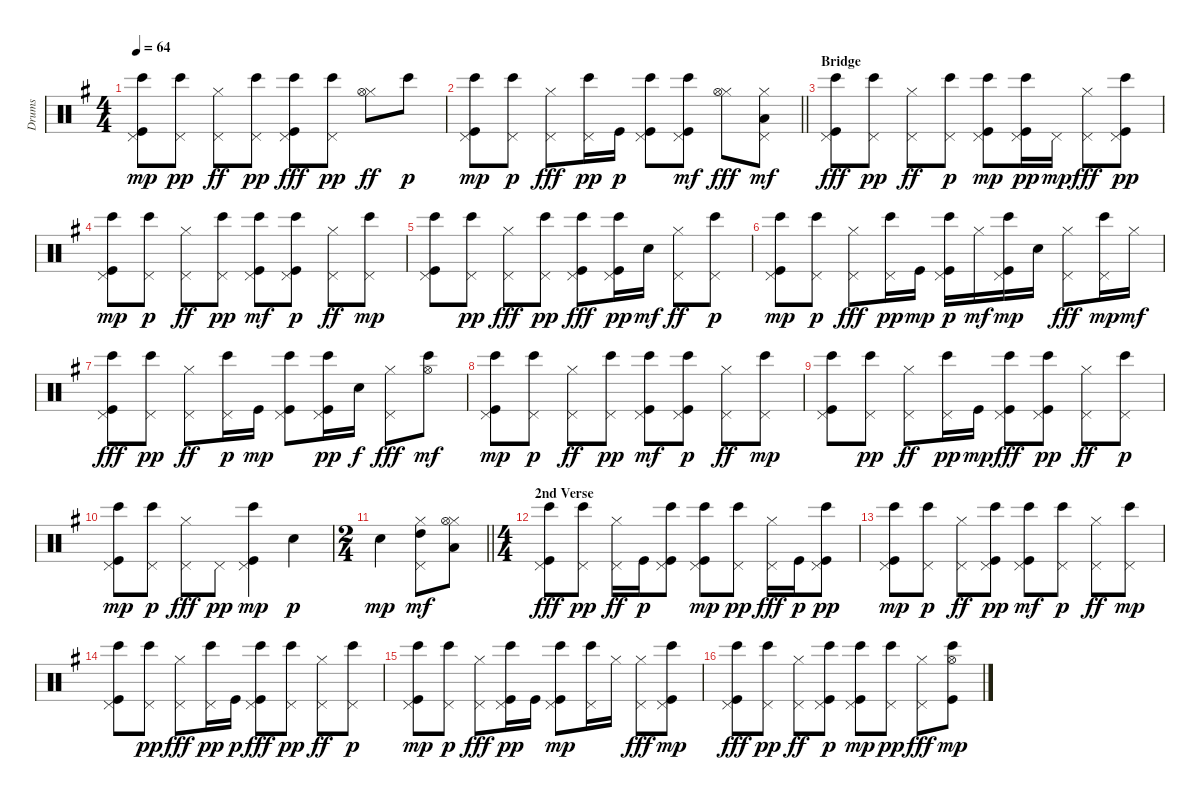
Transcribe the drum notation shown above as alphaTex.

\track ("Drums" "Drums") {instrument percussion}
\staff {score}
\articulation defaults
\ts (4 4)
\tempo 64
\clef neutral
\ks g
("Bongo High (hit)" "Kick (hit)" "Pedal Hi-Hat (hit)").8{dy mp} ("Bongo High (hit)" "Pedal Hi-Hat (hit)").8{dy pp} ("Hi-Hat (closed)" "Pedal Hi-Hat (hit)").8{dy ff} ("Bongo High (hit)" "Pedal Hi-Hat (hit)").8{dy pp} ("Bongo High (hit)" "Kick (hit)" "Pedal Hi-Hat (hit)").8{dy fff} ("Bongo High (hit)" "Pedal Hi-Hat (hit)").8{dy pp} ("Hi-Hat (closed)" "Hi-Hat (open)").8{dy ff} "Bongo High (hit)".8{dy p} |
\barLineRight lightlight
("Bongo High (hit)" "Kick (hit)" "Pedal Hi-Hat (hit)").8{dy mp} ("Bongo High (hit)" "Pedal Hi-Hat (hit)").8{dy p} ("Hi-Hat (closed)" "Pedal Hi-Hat (hit)").8{dy fff} ("Bongo High (hit)" "Pedal Hi-Hat (hit)").16{dy pp} "Kick (hit)".16{dy p} ("Bongo High (hit)" "Kick (hit)" "Pedal Hi-Hat (hit)").8 ("Bongo High (hit)" "Kick (hit)" "Pedal Hi-Hat (hit)").8{dy mf} ("Hi-Hat (closed)" "Hi-Hat (open)").8{dy fff} ("Hi-Hat (closed)" "Pedal Hi-Hat (hit)" "Low Tom (hit)").8{dy mf} |
\section ("" "Bridge")
("Bongo High (hit)" "Kick (hit)" "Pedal Hi-Hat (hit)").8{dy fff} ("Bongo High (hit)" "Pedal Hi-Hat (hit)").8{dy pp} ("Hi-Hat (closed)" "Pedal Hi-Hat (hit)").8{dy ff} ("Bongo High (hit)" "Pedal Hi-Hat (hit)").8{dy p} ("Bongo High (hit)" "Kick (hit)" "Pedal Hi-Hat (hit)").8{dy mp} ("Bongo High (hit)" "Kick (hit)" "Pedal Hi-Hat (hit)").16{dy pp} "Pedal Hi-Hat (hit)".16{dy mp} ("Hi-Hat (closed)" "Pedal Hi-Hat (hit)").8{dy fff} ("Bongo High (hit)" "Kick (hit)" "Pedal Hi-Hat (hit)").8{dy pp} |
("Bongo High (hit)" "Kick (hit)" "Pedal Hi-Hat (hit)").8{dy mp} ("Bongo High (hit)" "Pedal Hi-Hat (hit)").8{dy p} ("Hi-Hat (closed)" "Pedal Hi-Hat (hit)").8{dy ff} ("Bongo High (hit)" "Pedal Hi-Hat (hit)").8{dy pp} ("Bongo High (hit)" "Kick (hit)" "Pedal Hi-Hat (hit)").8{dy mf} ("Bongo High (hit)" "Kick (hit)" "Pedal Hi-Hat (hit)").8{dy p} ("Hi-Hat (closed)" "Pedal Hi-Hat (hit)").8{dy ff} ("Bongo High (hit)" "Pedal Hi-Hat (hit)").8{dy mp} |
("Bongo High (hit)" "Kick (hit)" "Pedal Hi-Hat (hit)").8 ("Bongo High (hit)" "Pedal Hi-Hat (hit)").8{dy pp} ("Hi-Hat (closed)" "Pedal Hi-Hat (hit)").8{dy fff} ("Bongo High (hit)" "Pedal Hi-Hat (hit)").8{dy pp} ("Bongo High (hit)" "Kick (hit)" "Pedal Hi-Hat (hit)").8{dy fff} ("Bongo High (hit)" "Kick (hit)" "Pedal Hi-Hat (hit)").16{dy pp} "Snare (hit)".16{dy mf} ("Hi-Hat (closed)" "Pedal Hi-Hat (hit)").8{dy ff} ("Bongo High (hit)" "Pedal Hi-Hat (hit)").8{dy p} |
("Bongo High (hit)" "Kick (hit)" "Pedal Hi-Hat (hit)").8{dy mp} ("Bongo High (hit)" "Pedal Hi-Hat (hit)").8{dy p} ("Hi-Hat (closed)" "Pedal Hi-Hat (hit)").8{dy fff} ("Bongo High (hit)" "Pedal Hi-Hat (hit)").16{dy pp} "Kick (hit)".16{dy mp} ("Bongo High (hit)" "Kick (hit)" "Pedal Hi-Hat (hit)").16{dy p} "Hi-Hat (closed)".16{dy mf} ("Bongo High (hit)" "Kick (hit)" "Pedal Hi-Hat (hit)").16{dy mp} "Snare (hit)".16 ("Hi-Hat (closed)" "Pedal Hi-Hat (hit)").8{dy fff} ("Bongo High (hit)" "Pedal Hi-Hat (hit)").16{dy mp} "Hi-Hat (closed)".16{dy mf} |
("Bongo High (hit)" "Kick (hit)" "Pedal Hi-Hat (hit)").8{dy fff} ("Bongo High (hit)" "Pedal Hi-Hat (hit)").8{dy pp} ("Hi-Hat (closed)" "Pedal Hi-Hat (hit)").8{dy ff} ("Bongo High (hit)" "Pedal Hi-Hat (hit)").16{dy p} "Kick (hit)".16{dy mp} ("Bongo High (hit)" "Kick (hit)" "Pedal Hi-Hat (hit)").8 ("Bongo High (hit)" "Kick (hit)" "Pedal Hi-Hat (hit)").16{dy pp} "Snare (hit)".16{dy f} ("Hi-Hat (closed)" "Pedal Hi-Hat (hit)").8{dy fff} ("Bongo High (hit)" "Hi-Hat (open)").8{dy mf} |
("Bongo High (hit)" "Kick (hit)" "Pedal Hi-Hat (hit)").8{dy mp} ("Bongo High (hit)" "Pedal Hi-Hat (hit)").8{dy p} ("Hi-Hat (closed)" "Pedal Hi-Hat (hit)").8{dy ff} ("Bongo High (hit)" "Pedal Hi-Hat (hit)").8{dy pp} ("Bongo High (hit)" "Kick (hit)" "Pedal Hi-Hat (hit)").8{dy mf} ("Bongo High (hit)" "Kick (hit)" "Pedal Hi-Hat (hit)").8{dy p} ("Hi-Hat (closed)" "Pedal Hi-Hat (hit)").8{dy ff} ("Bongo High (hit)" "Pedal Hi-Hat (hit)").8{dy mp} |
("Bongo High (hit)" "Kick (hit)" "Pedal Hi-Hat (hit)").8 ("Bongo High (hit)" "Pedal Hi-Hat (hit)").8{dy pp} ("Hi-Hat (closed)" "Pedal Hi-Hat (hit)").8{dy ff} ("Bongo High (hit)" "Pedal Hi-Hat (hit)").16{dy pp} "Kick (hit)".16{dy mp} ("Bongo High (hit)" "Kick (hit)" "Pedal Hi-Hat (hit)").8{dy fff} ("Bongo High (hit)" "Kick (hit)" "Pedal Hi-Hat (hit)").8{dy pp} ("Hi-Hat (closed)" "Pedal Hi-Hat (hit)").8{dy ff} ("Bongo High (hit)" "Pedal Hi-Hat (hit)").8{dy p} |
("Bongo High (hit)" "Kick (hit)" "Pedal Hi-Hat (hit)").8{dy mp} ("Bongo High (hit)" "Pedal Hi-Hat (hit)").8{dy p} ("Hi-Hat (closed)" "Pedal Hi-Hat (hit)").8{dy fff} "Pedal Hi-Hat (hit)".8{dy pp} ("Bongo High (hit)" "Kick (hit)" "Pedal Hi-Hat (hit)").4{dy mp} "Snare (hit)".4{dy p} |
\ts (2 4)
\barLineRight lightlight "Snare (hit)".4{dy mp}
("Hi-Hat (closed)" "Pedal Hi-Hat (hit)" "High Tom (hit)").8{dy mf} ("Hi-Hat (closed)" "Low Floor Tom (hit)" "Hi-Hat (open)").8 |
\ts (4 4)
\section ("" "2nd Verse")
("Bongo High (hit)" "Kick (hit)" "Pedal Hi-Hat (hit)").8{dy fff} ("Bongo High (hit)" "Pedal Hi-Hat (hit)").8{dy pp} ("Hi-Hat (closed)" "Pedal Hi-Hat (hit)").16{dy ff} "Kick (hit)".16{dy p} ("Bongo High (hit)" "Kick (hit)" "Pedal Hi-Hat (hit)").8 ("Bongo High (hit)" "Kick (hit)" "Pedal Hi-Hat (hit)").8{dy mp} ("Bongo High (hit)" "Pedal Hi-Hat (hit)").8{dy pp} ("Hi-Hat (closed)" "Pedal Hi-Hat (hit)").16{dy fff} "Kick (hit)".16{dy p} ("Bongo High (hit)" "Kick (hit)" "Pedal Hi-Hat (hit)").8{dy pp} |
("Bongo High (hit)" "Kick (hit)" "Pedal Hi-Hat (hit)").8{dy mp} ("Bongo High (hit)" "Pedal Hi-Hat (hit)").8{dy p} ("Hi-Hat (closed)" "Pedal Hi-Hat (hit)").8{dy ff} ("Bongo High (hit)" "Kick (hit)" "Pedal Hi-Hat (hit)").8{dy pp} ("Bongo High (hit)" "Kick (hit)" "Pedal Hi-Hat (hit)").8{dy mf} ("Bongo High (hit)" "Pedal Hi-Hat (hit)").8{dy p} ("Hi-Hat (closed)" "Pedal Hi-Hat (hit)").8{dy ff} ("Bongo High (hit)" "Pedal Hi-Hat (hit)").8{dy mp} |
("Bongo High (hit)" "Kick (hit)" "Pedal Hi-Hat (hit)").8 ("Bongo High (hit)" "Pedal Hi-Hat (hit)").8{dy pp} ("Hi-Hat (closed)" "Pedal Hi-Hat (hit)").8{dy fff} ("Bongo High (hit)" "Pedal Hi-Hat (hit)").16{dy pp} "Kick (hit)".16{dy p} ("Bongo High (hit)" "Kick (hit)" "Pedal Hi-Hat (hit)").8{dy fff} ("Bongo High (hit)" "Pedal Hi-Hat (hit)").8{dy pp} ("Hi-Hat (closed)" "Pedal Hi-Hat (hit)").8{dy ff} ("Bongo High (hit)" "Pedal Hi-Hat (hit)").8{dy p} |
("Bongo High (hit)" "Kick (hit)" "Pedal Hi-Hat (hit)").8{dy mp} ("Bongo High (hit)" "Pedal Hi-Hat (hit)").8{dy p} ("Hi-Hat (closed)" "Pedal Hi-Hat (hit)").8{dy fff} ("Bongo High (hit)" "Kick (hit)" "Pedal Hi-Hat (hit)").16{dy pp} "Kick (hit)".16 ("Bongo High (hit)" "Kick (hit)" "Pedal Hi-Hat (hit)").8{dy mp} ("Bongo High (hit)" "Pedal Hi-Hat (hit)").16 "Hi-Hat (closed)".16 ("Hi-Hat (closed)" "Pedal Hi-Hat (hit)").8{dy fff} ("Bongo High (hit)" "Kick (hit)" "Pedal Hi-Hat (hit)").8{dy mp} |
("Bongo High (hit)" "Kick (hit)" "Pedal Hi-Hat (hit)").8{dy fff} ("Bongo High (hit)" "Pedal Hi-Hat (hit)").8{dy pp} ("Hi-Hat (closed)" "Pedal Hi-Hat (hit)").8{dy ff} ("Bongo High (hit)" "Kick (hit)" "Pedal Hi-Hat (hit)").8{dy p} ("Bongo High (hit)" "Kick (hit)" "Pedal Hi-Hat (hit)").8{dy mp} ("Bongo High (hit)" "Pedal Hi-Hat (hit)").8{dy pp} ("Hi-Hat (closed)" "Pedal Hi-Hat (hit)").8{dy fff} ("Bongo High (hit)" "Kick (hit)" "Hi-Hat (open)").8{dy mp}
